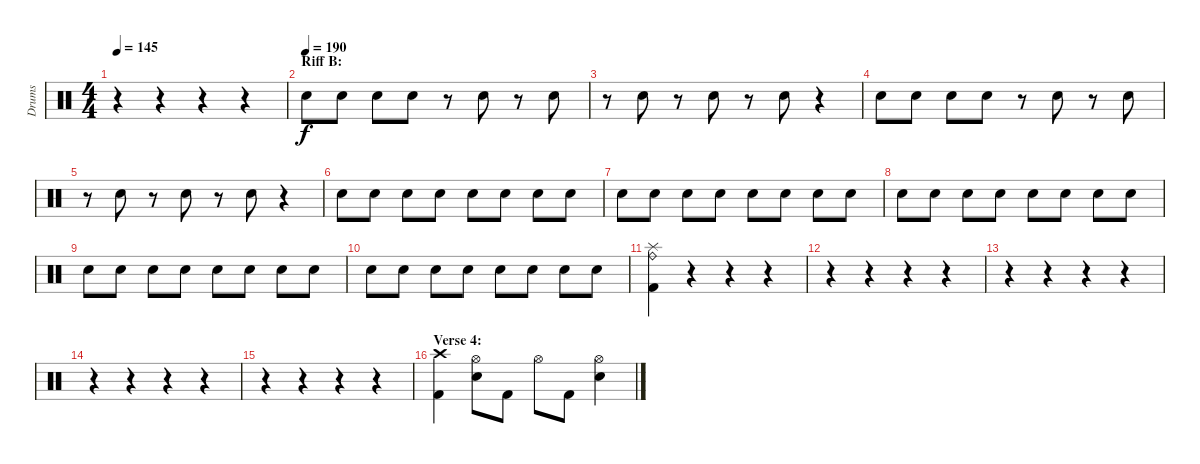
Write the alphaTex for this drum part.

\track ("Drums" "Drums") {instrument percussion}
\staff {score}
\articulation defaults
\ts (4 4)
\tempo 145
\clef neutral
\ks c
r.4{dy f} r.4 r.4 r.4 |
\section ("" "Riff B:")
\tempo (190)
"Electric Snare (hit)".8 "Electric Snare (hit)".8 "Electric Snare (hit)".8 "Electric Snare (hit)".8 r.8 "Electric Snare (hit)".8 r.8 "Electric Snare (hit)".8 |
r.8 "Electric Snare (hit)".8 r.8 "Electric Snare (hit)".8 r.8 "Electric Snare (hit)".8 r.4 |
"Electric Snare (hit)".8 "Electric Snare (hit)".8 "Electric Snare (hit)".8 "Electric Snare (hit)".8 r.8 "Electric Snare (hit)".8 r.8 "Electric Snare (hit)".8 |
r.8 "Electric Snare (hit)".8 r.8 "Electric Snare (hit)".8 r.8 "Electric Snare (hit)".8 r.4 |
"Electric Snare (hit)".8 "Electric Snare (hit)".8 "Electric Snare (hit)".8 "Electric Snare (hit)".8 "Electric Snare (hit)".8 "Electric Snare (hit)".8 "Electric Snare (hit)".8 "Electric Snare (hit)".8 |
"Electric Snare (hit)".8 "Electric Snare (hit)".8 "Electric Snare (hit)".8 "Electric Snare (hit)".8 "Electric Snare (hit)".8 "Electric Snare (hit)".8 "Electric Snare (hit)".8 "Electric Snare (hit)".8 |
"Electric Snare (hit)".8 "Electric Snare (hit)".8 "Electric Snare (hit)".8 "Electric Snare (hit)".8 "Electric Snare (hit)".8 "Electric Snare (hit)".8 "Electric Snare (hit)".8 "Electric Snare (hit)".8 |
"Electric Snare (hit)".8 "Electric Snare (hit)".8 "Electric Snare (hit)".8 "Electric Snare (hit)".8 "Electric Snare (hit)".8 "Electric Snare (hit)".8 "Electric Snare (hit)".8 "Electric Snare (hit)".8 |
"Electric Snare (hit)".8 "Electric Snare (hit)".8 "Electric Snare (hit)".8 "Electric Snare (hit)".8 "Electric Snare (hit)".8 "Electric Snare (hit)".8 "Electric Snare (hit)".8 "Electric Snare (hit)".8 |
("Splash (hit)" "Ride (bell)" "Kick (hit) 2").4 r.4 r.4 r.4 |
r.4 r.4 r.4 r.4 |
r.4 r.4 r.4 r.4 |
r.4 r.4 r.4 r.4 |
r.4 r.4 r.4 r.4 |
\section ("" "Verse 4:")
("Crash high (hit)" "Kick (hit) 2").4 ("Hi-Hat (open)" "Electric Snare (hit)").8 "Kick (hit) 2".8 "Hi-Hat (open)".8 "Kick (hit) 2".8 ("Hi-Hat (open)" "Electric Snare (hit)").4
